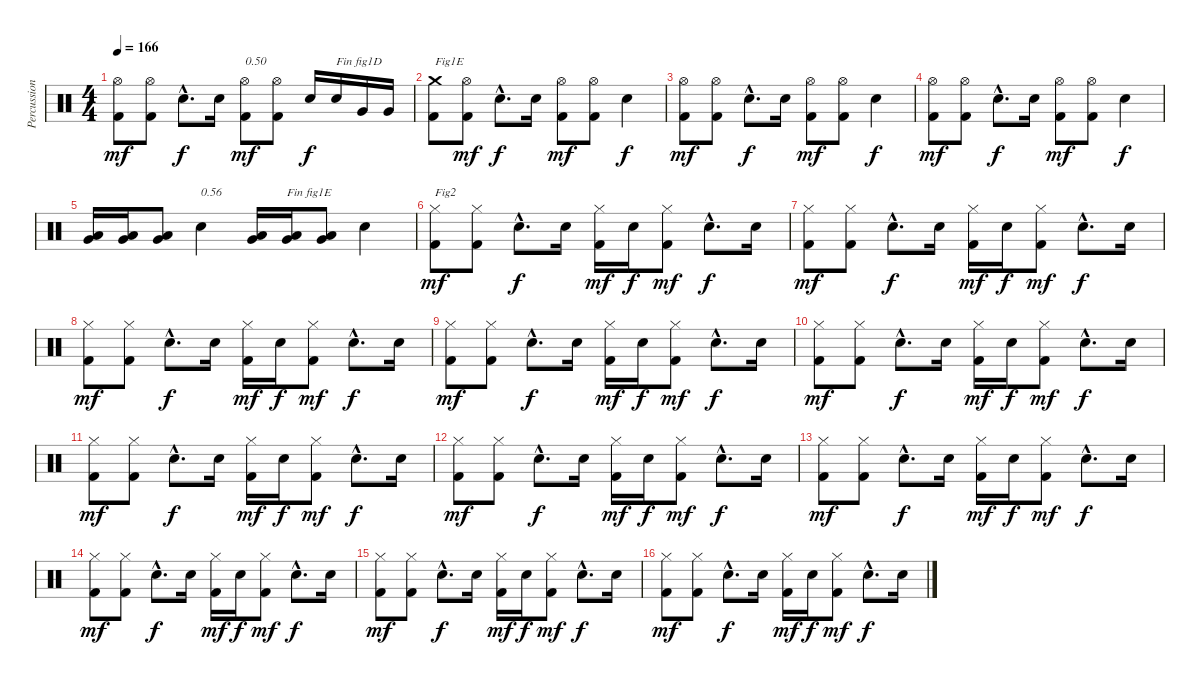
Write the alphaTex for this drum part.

\track ("Percussions" "Percussion") {instrument percussion}
\staff {score}
\articulation defaults
\ts (4 4)
\tempo 166
\clef neutral
\ks c
("Kick (hit) 2" "Hi-Hat (open)").8{dy mf} ("Kick (hit) 2" "Hi-Hat (open)").8 "Electric Snare (hit)"{hac}.8{d dy f} "Electric Snare (hit)".16 ("Kick (hit) 2" "Hi-Hat (open)").8{txt "0.50" dy mf} ("Kick (hit) 2" "Hi-Hat (open)").8 "Electric Snare (hit)".16{dy f} "Electric Snare (hit)".16{txt "Fin fig1D"} "Very Low Tom (hit)".16 "Very Low Tom (hit)".16 |
("Kick (hit) 2" "Crash medium (hit)").8{txt "Fig1E"} ("Kick (hit) 2" "Hi-Hat (open)").8{dy mf} "Electric Snare (hit)"{hac}.8{d dy f} "Electric Snare (hit)".16 ("Kick (hit) 2" "Hi-Hat (open)").8{dy mf} ("Kick (hit) 2" "Hi-Hat (open)").8 "Electric Snare (hit)".4{dy f} |
("Kick (hit) 2" "Hi-Hat (open)").8{dy mf} ("Kick (hit) 2" "Hi-Hat (open)").8 "Electric Snare (hit)"{hac}.8{d dy f} "Electric Snare (hit)".16 ("Kick (hit) 2" "Hi-Hat (open)").8{dy mf} ("Kick (hit) 2" "Hi-Hat (open)").8 "Electric Snare (hit)".4{dy f} |
("Kick (hit) 2" "Hi-Hat (open)").8{dy mf} ("Kick (hit) 2" "Hi-Hat (open)").8 "Electric Snare (hit)"{hac}.8{d dy f} "Electric Snare (hit)".16 ("Kick (hit) 2" "Hi-Hat (open)").8{dy mf} ("Kick (hit) 2" "Hi-Hat (open)").8 "Electric Snare (hit)".4{dy f} |
("Low Floor Tom (hit)" "Very Low Tom (hit)").16 ("Low Floor Tom (hit)" "Very Low Tom (hit)").16 ("Low Floor Tom (hit)" "Very Low Tom (hit)").8 "Electric Snare (hit)".4{txt "0.56"} ("Low Floor Tom (hit)" "Very Low Tom (hit)").16 ("Low Floor Tom (hit)" "Very Low Tom (hit)").16{txt "Fin fig1E"} ("Low Floor Tom (hit)" "Very Low Tom (hit)").8 "Electric Snare (hit)".4 |
("Kick (hit) 2" "Hi-Hat (closed)").8{txt "Fig2" dy mf} ("Kick (hit) 2" "Hi-Hat (closed)").8 "Electric Snare (hit)"{hac}.8{d dy f} "Electric Snare (hit)".16 ("Kick (hit) 2" "Hi-Hat (closed)").16{dy mf} "Electric Snare (hit)".16{dy f} ("Kick (hit) 2" "Hi-Hat (closed)").8{dy mf} "Electric Snare (hit)"{hac}.8{d dy f} "Electric Snare (hit)".16 |
("Kick (hit) 2" "Hi-Hat (closed)").8{dy mf} ("Kick (hit) 2" "Hi-Hat (closed)").8 "Electric Snare (hit)"{hac}.8{d dy f} "Electric Snare (hit)".16 ("Kick (hit) 2" "Hi-Hat (closed)").16{dy mf} "Electric Snare (hit)".16{dy f} ("Kick (hit) 2" "Hi-Hat (closed)").8{dy mf} "Electric Snare (hit)"{hac}.8{d dy f} "Electric Snare (hit)".16 |
("Kick (hit) 2" "Hi-Hat (closed)").8{dy mf} ("Kick (hit) 2" "Hi-Hat (closed)").8 "Electric Snare (hit)"{hac}.8{d dy f} "Electric Snare (hit)".16 ("Kick (hit) 2" "Hi-Hat (closed)").16{dy mf} "Electric Snare (hit)".16{dy f} ("Kick (hit) 2" "Hi-Hat (closed)").8{dy mf} "Electric Snare (hit)"{hac}.8{d dy f} "Electric Snare (hit)".16 |
("Kick (hit) 2" "Hi-Hat (closed)").8{dy mf} ("Kick (hit) 2" "Hi-Hat (closed)").8 "Electric Snare (hit)"{hac}.8{d dy f} "Electric Snare (hit)".16 ("Kick (hit) 2" "Hi-Hat (closed)").16{dy mf} "Electric Snare (hit)".16{dy f} ("Kick (hit) 2" "Hi-Hat (closed)").8{dy mf} "Electric Snare (hit)"{hac}.8{d dy f} "Electric Snare (hit)".16 |
("Kick (hit) 2" "Hi-Hat (closed)").8{dy mf} ("Kick (hit) 2" "Hi-Hat (closed)").8 "Electric Snare (hit)"{hac}.8{d dy f} "Electric Snare (hit)".16 ("Kick (hit) 2" "Hi-Hat (closed)").16{dy mf} "Electric Snare (hit)".16{dy f} ("Kick (hit) 2" "Hi-Hat (closed)").8{dy mf} "Electric Snare (hit)"{hac}.8{d dy f} "Electric Snare (hit)".16 |
("Kick (hit) 2" "Hi-Hat (closed)").8{dy mf} ("Kick (hit) 2" "Hi-Hat (closed)").8 "Electric Snare (hit)"{hac}.8{d dy f} "Electric Snare (hit)".16 ("Kick (hit) 2" "Hi-Hat (closed)").16{dy mf} "Electric Snare (hit)".16{dy f} ("Kick (hit) 2" "Hi-Hat (closed)").8{dy mf} "Electric Snare (hit)"{hac}.8{d dy f} "Electric Snare (hit)".16 |
("Kick (hit) 2" "Hi-Hat (closed)").8{dy mf} ("Kick (hit) 2" "Hi-Hat (closed)").8 "Electric Snare (hit)"{hac}.8{d dy f} "Electric Snare (hit)".16 ("Kick (hit) 2" "Hi-Hat (closed)").16{dy mf} "Electric Snare (hit)".16{dy f} ("Kick (hit) 2" "Hi-Hat (closed)").8{dy mf} "Electric Snare (hit)"{hac}.8{d dy f} "Electric Snare (hit)".16 |
("Kick (hit) 2" "Hi-Hat (closed)").8{dy mf} ("Kick (hit) 2" "Hi-Hat (closed)").8 "Electric Snare (hit)"{hac}.8{d dy f} "Electric Snare (hit)".16 ("Kick (hit) 2" "Hi-Hat (closed)").16{dy mf} "Electric Snare (hit)".16{dy f} ("Kick (hit) 2" "Hi-Hat (closed)").8{dy mf} "Electric Snare (hit)"{hac}.8{d dy f} "Electric Snare (hit)".16 |
("Kick (hit) 2" "Hi-Hat (closed)").8{dy mf} ("Kick (hit) 2" "Hi-Hat (closed)").8 "Electric Snare (hit)"{hac}.8{d dy f} "Electric Snare (hit)".16 ("Kick (hit) 2" "Hi-Hat (closed)").16{dy mf} "Electric Snare (hit)".16{dy f} ("Kick (hit) 2" "Hi-Hat (closed)").8{dy mf} "Electric Snare (hit)"{hac}.8{d dy f} "Electric Snare (hit)".16 |
("Kick (hit) 2" "Hi-Hat (closed)").8{dy mf} ("Kick (hit) 2" "Hi-Hat (closed)").8 "Electric Snare (hit)"{hac}.8{d dy f} "Electric Snare (hit)".16 ("Kick (hit) 2" "Hi-Hat (closed)").16{dy mf} "Electric Snare (hit)".16{dy f} ("Kick (hit) 2" "Hi-Hat (closed)").8{dy mf} "Electric Snare (hit)"{hac}.8{d dy f} "Electric Snare (hit)".16 |
("Kick (hit) 2" "Hi-Hat (closed)").8{dy mf} ("Kick (hit) 2" "Hi-Hat (closed)").8 "Electric Snare (hit)"{hac}.8{d dy f} "Electric Snare (hit)".16 ("Kick (hit) 2" "Hi-Hat (closed)").16{dy mf} "Electric Snare (hit)".16{dy f} ("Kick (hit) 2" "Hi-Hat (closed)").8{dy mf} "Electric Snare (hit)"{hac}.8{d dy f} "Electric Snare (hit)".16
